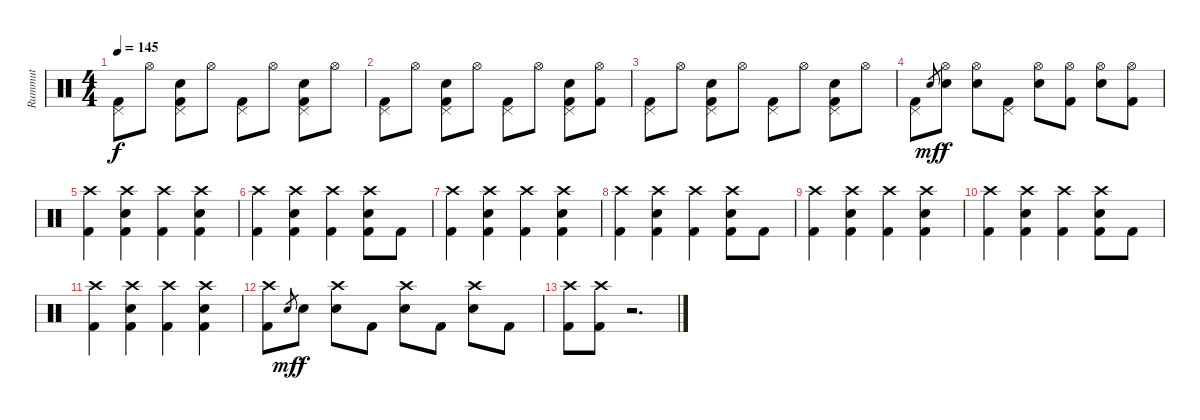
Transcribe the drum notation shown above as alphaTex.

\track ("Rummut" "Rummut") {instrument percussion}
\staff {score}
\articulation defaults
\ts (4 4)
\tempo 145
\clef neutral
\ks c
("Pedal Hi-Hat (hit)" "Kick (hit) 2").8{dy f} "Hi-Hat (open)".8 ("Pedal Hi-Hat (hit)" "Electric Snare (hit)" "Kick (hit) 2").8 "Hi-Hat (open)".8 ("Pedal Hi-Hat (hit)" "Kick (hit) 2").8 "Hi-Hat (open)".8 ("Pedal Hi-Hat (hit)" "Electric Snare (hit)" "Kick (hit) 2").8 "Hi-Hat (open)".8 |
("Pedal Hi-Hat (hit)" "Kick (hit) 2").8 "Hi-Hat (open)".8 ("Pedal Hi-Hat (hit)" "Electric Snare (hit)" "Kick (hit) 2").8 "Hi-Hat (open)".8 ("Pedal Hi-Hat (hit)" "Kick (hit) 2").8 "Hi-Hat (open)".8 ("Pedal Hi-Hat (hit)" "Electric Snare (hit)" "Kick (hit) 2").8 ("Hi-Hat (open)" "Kick (hit) 2").8 |
("Pedal Hi-Hat (hit)" "Kick (hit) 2").8 "Hi-Hat (open)".8 ("Pedal Hi-Hat (hit)" "Electric Snare (hit)" "Kick (hit) 2").8 "Hi-Hat (open)".8 ("Pedal Hi-Hat (hit)" "Kick (hit) 2").8 "Hi-Hat (open)".8 ("Pedal Hi-Hat (hit)" "Electric Snare (hit)" "Kick (hit) 2").8 "Hi-Hat (open)".8 |
("Pedal Hi-Hat (hit)" "Kick (hit) 2").8 "Electric Snare (hit)".8{gr dy mf} ("Hi-Hat (open)" "Electric Snare (hit)").8{dy f} ("Hi-Hat (open)" "Electric Snare (hit)").8 ("Pedal Hi-Hat (hit)" "Kick (hit) 2").8 ("Hi-Hat (open)" "Electric Snare (hit)").8 ("Hi-Hat (open)" "Kick (hit) 2").8 ("Hi-Hat (open)" "Electric Snare (hit)").8 ("Hi-Hat (open)" "Kick (hit) 2").8 |
("Crash high (hit)" "Kick (hit) 2").4 ("Crash high (hit)" "Electric Snare (hit)" "Kick (hit) 2").4 ("Crash high (hit)" "Kick (hit) 2").4 ("Crash high (hit)" "Electric Snare (hit)" "Kick (hit) 2").4 |
("Crash high (hit)" "Kick (hit) 2").4 ("Crash high (hit)" "Electric Snare (hit)" "Kick (hit) 2").4 ("Crash high (hit)" "Kick (hit) 2").4 ("Crash high (hit)" "Electric Snare (hit)" "Kick (hit) 2").8 "Kick (hit) 2".8 |
("Crash high (hit)" "Kick (hit) 2").4 ("Crash high (hit)" "Electric Snare (hit)" "Kick (hit) 2").4 ("Crash high (hit)" "Kick (hit) 2").4 ("Crash high (hit)" "Electric Snare (hit)" "Kick (hit) 2").4 |
("Crash high (hit)" "Kick (hit) 2").4 ("Crash high (hit)" "Electric Snare (hit)" "Kick (hit) 2").4 ("Crash high (hit)" "Kick (hit) 2").4 ("Crash high (hit)" "Electric Snare (hit)" "Kick (hit) 2").8 "Kick (hit) 2".8 |
("Crash high (hit)" "Kick (hit) 2").4 ("Crash high (hit)" "Electric Snare (hit)" "Kick (hit) 2").4 ("Crash high (hit)" "Kick (hit) 2").4 ("Crash high (hit)" "Electric Snare (hit)" "Kick (hit) 2").4 |
("Crash high (hit)" "Kick (hit) 2").4 ("Crash high (hit)" "Electric Snare (hit)" "Kick (hit) 2").4 ("Crash high (hit)" "Kick (hit) 2").4 ("Crash high (hit)" "Electric Snare (hit)" "Kick (hit) 2").8 "Kick (hit) 2".8 |
("Crash high (hit)" "Kick (hit) 2").4 ("Crash high (hit)" "Electric Snare (hit)" "Kick (hit) 2").4 ("Crash high (hit)" "Kick (hit) 2").4 ("Crash high (hit)" "Electric Snare (hit)" "Kick (hit) 2").4 |
("Crash high (hit)" "Kick (hit) 2").8 "Electric Snare (hit)".8{gr dy mf} "Electric Snare (hit)".8{dy f} ("Crash high (hit)" "Electric Snare (hit)").8 "Kick (hit) 2".8 ("Crash high (hit)" "Electric Snare (hit)").8 "Kick (hit) 2".8 ("Crash high (hit)" "Electric Snare (hit)").8 "Kick (hit) 2".8 |
("Crash high (hit)" "Kick (hit) 2").8 ("Crash high (hit)" "Kick (hit) 2").8 r.2{d}
